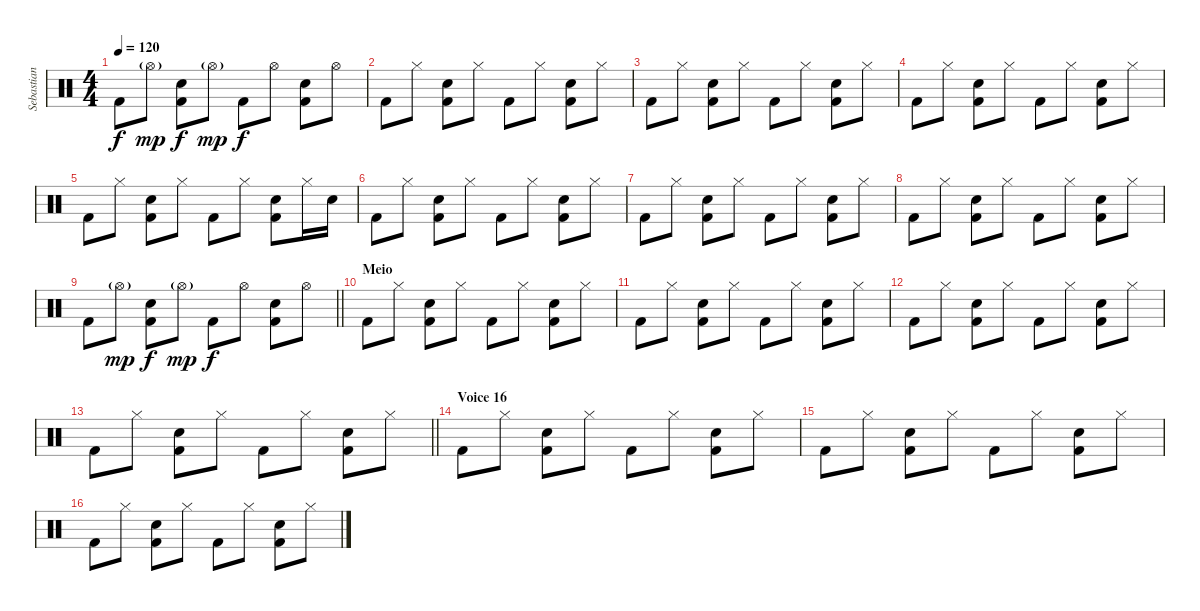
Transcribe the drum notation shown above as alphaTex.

\track ("Sebastian (Drums)" "Sebastian ") {instrument percussion}
\staff {score}
\articulation defaults
\ts (4 4)
\tempo 120
\clef neutral
\ks c "Kick (hit) 2".8{dy f} "Hi-Hat (open)"{g}.8{dy mp}
("Electric Snare (hit)" "Kick (hit) 2").8{dy f} "Hi-Hat (open)"{g}.8{dy mp} "Kick (hit) 2".8{dy f} "Hi-Hat (open)".8 ("Electric Snare (hit)" "Kick (hit) 2").8 "Hi-Hat (open)".8 |
"Kick (hit) 2".8 "Hi-Hat (closed)".8 ("Electric Snare (hit)" "Kick (hit) 2").8 "Hi-Hat (closed)".8 "Kick (hit) 2".8 "Hi-Hat (closed)".8 ("Electric Snare (hit)" "Kick (hit) 2").8 "Hi-Hat (closed)".8 |
"Kick (hit) 2".8 "Hi-Hat (closed)".8 ("Electric Snare (hit)" "Kick (hit) 2").8 "Hi-Hat (closed)".8 "Kick (hit) 2".8 "Hi-Hat (closed)".8 ("Electric Snare (hit)" "Kick (hit) 2").8 "Hi-Hat (closed)".8 |
"Kick (hit) 2".8 "Hi-Hat (closed)".8 ("Electric Snare (hit)" "Kick (hit) 2").8 "Hi-Hat (closed)".8 "Kick (hit) 2".8 "Hi-Hat (closed)".8 ("Electric Snare (hit)" "Kick (hit) 2").8 "Hi-Hat (closed)".8 |
"Kick (hit) 2".8 "Hi-Hat (closed)".8 ("Electric Snare (hit)" "Kick (hit) 2").8 "Hi-Hat (closed)".8 "Kick (hit) 2".8 "Hi-Hat (closed)".8 ("Electric Snare (hit)" "Kick (hit) 2").8 "Hi-Hat (closed)".16 "Electric Snare (hit)".16 |
"Kick (hit) 2".8 "Hi-Hat (closed)".8 ("Electric Snare (hit)" "Kick (hit) 2").8 "Hi-Hat (closed)".8 "Kick (hit) 2".8 "Hi-Hat (closed)".8 ("Electric Snare (hit)" "Kick (hit) 2").8 "Hi-Hat (closed)".8 |
"Kick (hit) 2".8 "Hi-Hat (closed)".8 ("Electric Snare (hit)" "Kick (hit) 2").8 "Hi-Hat (closed)".8 "Kick (hit) 2".8 "Hi-Hat (closed)".8 ("Electric Snare (hit)" "Kick (hit) 2").8 "Hi-Hat (closed)".8 |
"Kick (hit) 2".8 "Hi-Hat (closed)".8 ("Electric Snare (hit)" "Kick (hit) 2").8 "Hi-Hat (closed)".8 "Kick (hit) 2".8 "Hi-Hat (closed)".8 ("Electric Snare (hit)" "Kick (hit) 2").8 "Hi-Hat (closed)".8 |
\barLineRight lightlight "Kick (hit) 2".8 "Hi-Hat (open)"{g}.8{dy mp}
("Electric Snare (hit)" "Kick (hit) 2").8{dy f} "Hi-Hat (open)"{g}.8{dy mp} "Kick (hit) 2".8{dy f} "Hi-Hat (open)".8 ("Electric Snare (hit)" "Kick (hit) 2").8 "Hi-Hat (open)".8 |
\section ("" "Meio")
"Kick (hit) 2".8 "Hi-Hat (closed)".8 ("Electric Snare (hit)" "Kick (hit) 2").8 "Hi-Hat (closed)".8 "Kick (hit) 2".8 "Hi-Hat (closed)".8 ("Electric Snare (hit)" "Kick (hit) 2").8 "Hi-Hat (closed)".8 |
"Kick (hit) 2".8 "Hi-Hat (closed)".8 ("Electric Snare (hit)" "Kick (hit) 2").8 "Hi-Hat (closed)".8 "Kick (hit) 2".8 "Hi-Hat (closed)".8 ("Electric Snare (hit)" "Kick (hit) 2").8 "Hi-Hat (closed)".8 |
"Kick (hit) 2".8 "Hi-Hat (closed)".8 ("Electric Snare (hit)" "Kick (hit) 2").8 "Hi-Hat (closed)".8 "Kick (hit) 2".8 "Hi-Hat (closed)".8 ("Electric Snare (hit)" "Kick (hit) 2").8 "Hi-Hat (closed)".8 |
\barLineRight lightlight "Kick (hit) 2".8 "Hi-Hat (closed)".8
("Electric Snare (hit)" "Kick (hit) 2").8 "Hi-Hat (closed)".8 "Kick (hit) 2".8 "Hi-Hat (closed)".8 ("Electric Snare (hit)" "Kick (hit) 2").8 "Hi-Hat (closed)".8 |
\section ("" "Voice 16")
"Kick (hit) 2".8 "Hi-Hat (closed)".8 ("Electric Snare (hit)" "Kick (hit) 2").8 "Hi-Hat (closed)".8 "Kick (hit) 2".8 "Hi-Hat (closed)".8 ("Electric Snare (hit)" "Kick (hit) 2").8 "Hi-Hat (closed)".8 |
"Kick (hit) 2".8 "Hi-Hat (closed)".8 ("Electric Snare (hit)" "Kick (hit) 2").8 "Hi-Hat (closed)".8 "Kick (hit) 2".8 "Hi-Hat (closed)".8 ("Electric Snare (hit)" "Kick (hit) 2").8 "Hi-Hat (closed)".8 |
"Kick (hit) 2".8 "Hi-Hat (closed)".8 ("Electric Snare (hit)" "Kick (hit) 2").8 "Hi-Hat (closed)".8 "Kick (hit) 2".8 "Hi-Hat (closed)".8 ("Electric Snare (hit)" "Kick (hit) 2").8 "Hi-Hat (closed)".8
